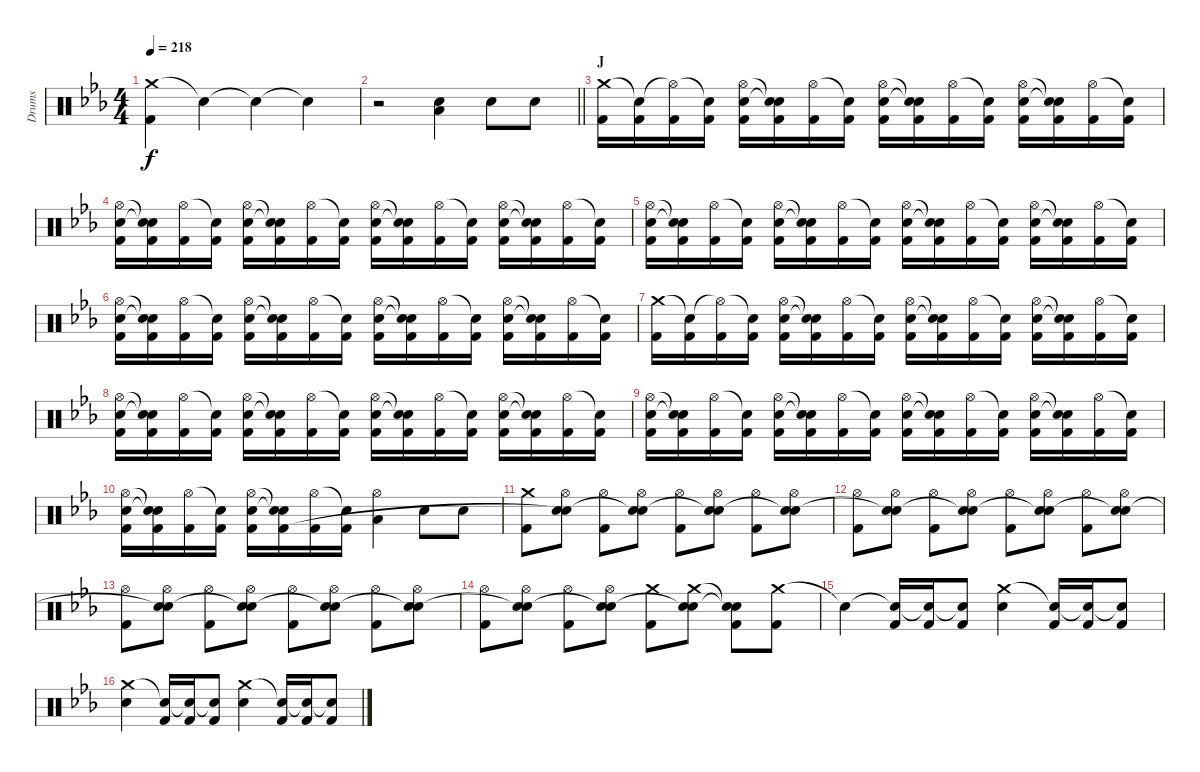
\track ("Drums" "Drums") {instrument percussion}
\staff {score}
\articulation defaults
\ts (4 4)
\tempo 218
\clef neutral
\ks eb
("Crash medium (hit)" "Kick (hit) 2").4{dy f} "Snare (hit)"{t}.4 "Snare (hit)"{t}.4 "Snare (hit)"{t}.4 |
\barLineRight lightlight
r.2 ("Electric Snare (hit)" "Low Floor Tom (hit)").4 "Electric Snare (hit)".8 "Electric Snare (hit)".8 |
\section ("" "J")
("Crash medium (hit)" "Kick (hit) 2").16 ("Snare (hit)"{t} "Kick (hit) 2").16 ("Hi-Hat (open)"{t} "Kick (hit) 2").16 ("Snare (hit)"{t} "Kick (hit) 2").16 ("Hi-Hat (open)" "Electric Snare (hit)" "Kick (hit) 2").16 ("Snare (hit)"{t} "Snare (hit)"{t} "Kick (hit) 2").16 ("Hi-Hat (open)" "Kick (hit) 2").16 ("Snare (hit)"{t} "Kick (hit) 2").16 ("Hi-Hat (open)" "Electric Snare (hit)" "Kick (hit) 2").16 ("Snare (hit)"{t} "Snare (hit)"{t} "Kick (hit) 2").16 ("Hi-Hat (open)" "Kick (hit) 2").16 ("Snare (hit)"{t} "Kick (hit) 2").16 ("Hi-Hat (open)" "Electric Snare (hit)" "Kick (hit) 2").16 ("Snare (hit)"{t} "Snare (hit)"{t} "Kick (hit) 2").16 ("Hi-Hat (open)" "Kick (hit) 2").16 ("Snare (hit)"{t} "Kick (hit) 2").16 |
("Hi-Hat (open)" "Electric Snare (hit)" "Kick (hit) 2").16 ("Snare (hit)"{t} "Snare (hit)"{t} "Kick (hit) 2").16 ("Hi-Hat (open)" "Kick (hit) 2").16 ("Snare (hit)"{t} "Kick (hit) 2").16 ("Hi-Hat (open)" "Electric Snare (hit)" "Kick (hit) 2").16 ("Snare (hit)"{t} "Snare (hit)"{t} "Kick (hit) 2").16 ("Hi-Hat (open)" "Kick (hit) 2").16 ("Snare (hit)"{t} "Kick (hit) 2").16 ("Hi-Hat (open)" "Electric Snare (hit)" "Kick (hit) 2").16 ("Snare (hit)"{t} "Snare (hit)"{t} "Kick (hit) 2").16 ("Hi-Hat (open)" "Kick (hit) 2").16 ("Snare (hit)"{t} "Kick (hit) 2").16 ("Hi-Hat (open)" "Electric Snare (hit)" "Kick (hit) 2").16 ("Snare (hit)"{t} "Snare (hit)"{t} "Kick (hit) 2").16 ("Hi-Hat (open)" "Kick (hit) 2").16 ("Snare (hit)"{t} "Kick (hit) 2").16 |
("Hi-Hat (open)" "Electric Snare (hit)" "Kick (hit) 2").16 ("Snare (hit)"{t} "Snare (hit)"{t} "Kick (hit) 2").16 ("Hi-Hat (open)" "Kick (hit) 2").16 ("Snare (hit)"{t} "Kick (hit) 2").16 ("Hi-Hat (open)" "Electric Snare (hit)" "Kick (hit) 2").16 ("Snare (hit)"{t} "Snare (hit)"{t} "Kick (hit) 2").16 ("Hi-Hat (open)" "Kick (hit) 2").16 ("Snare (hit)"{t} "Kick (hit) 2").16 ("Hi-Hat (open)" "Electric Snare (hit)" "Kick (hit) 2").16 ("Snare (hit)"{t} "Snare (hit)"{t} "Kick (hit) 2").16 ("Hi-Hat (open)" "Kick (hit) 2").16 ("Snare (hit)"{t} "Kick (hit) 2").16 ("Hi-Hat (open)" "Electric Snare (hit)" "Kick (hit) 2").16 ("Snare (hit)"{t} "Snare (hit)"{t} "Kick (hit) 2").16 ("Hi-Hat (open)" "Kick (hit) 2").16 ("Snare (hit)"{t} "Kick (hit) 2").16 |
("Hi-Hat (open)" "Electric Snare (hit)" "Kick (hit) 2").16 ("Snare (hit)"{t} "Snare (hit)"{t} "Kick (hit) 2").16 ("Hi-Hat (open)" "Kick (hit) 2").16 ("Snare (hit)"{t} "Kick (hit) 2").16 ("Hi-Hat (open)" "Electric Snare (hit)" "Kick (hit) 2").16 ("Snare (hit)"{t} "Snare (hit)"{t} "Kick (hit) 2").16 ("Hi-Hat (open)" "Kick (hit) 2").16 ("Snare (hit)"{t} "Kick (hit) 2").16 ("Hi-Hat (open)" "Electric Snare (hit)" "Kick (hit) 2").16 ("Snare (hit)"{t} "Snare (hit)"{t} "Kick (hit) 2").16 ("Hi-Hat (open)" "Kick (hit) 2").16 ("Snare (hit)"{t} "Kick (hit) 2").16 ("Hi-Hat (open)" "Electric Snare (hit)" "Kick (hit) 2").16 ("Snare (hit)"{t} "Snare (hit)"{t} "Kick (hit) 2").16 ("Hi-Hat (open)" "Kick (hit) 2").16 ("Snare (hit)"{t} "Kick (hit) 2").16 |
("Crash medium (hit)" "Kick (hit) 2").16 ("Snare (hit)"{t} "Kick (hit) 2").16 ("Hi-Hat (open)"{t} "Kick (hit) 2").16 ("Snare (hit)"{t} "Kick (hit) 2").16 ("Hi-Hat (open)" "Electric Snare (hit)" "Kick (hit) 2").16 ("Snare (hit)"{t} "Snare (hit)"{t} "Kick (hit) 2").16 ("Hi-Hat (open)" "Kick (hit) 2").16 ("Snare (hit)"{t} "Kick (hit) 2").16 ("Hi-Hat (open)" "Electric Snare (hit)" "Kick (hit) 2").16 ("Snare (hit)"{t} "Snare (hit)"{t} "Kick (hit) 2").16 ("Hi-Hat (open)" "Kick (hit) 2").16 ("Snare (hit)"{t} "Kick (hit) 2").16 ("Hi-Hat (open)" "Electric Snare (hit)" "Kick (hit) 2").16 ("Snare (hit)"{t} "Snare (hit)"{t} "Kick (hit) 2").16 ("Hi-Hat (open)" "Kick (hit) 2").16 ("Snare (hit)"{t} "Kick (hit) 2").16 |
("Hi-Hat (open)" "Electric Snare (hit)" "Kick (hit) 2").16 ("Snare (hit)"{t} "Snare (hit)"{t} "Kick (hit) 2").16 ("Hi-Hat (open)" "Kick (hit) 2").16 ("Snare (hit)"{t} "Kick (hit) 2").16 ("Hi-Hat (open)" "Electric Snare (hit)" "Kick (hit) 2").16 ("Snare (hit)"{t} "Snare (hit)"{t} "Kick (hit) 2").16 ("Hi-Hat (open)" "Kick (hit) 2").16 ("Snare (hit)"{t} "Kick (hit) 2").16 ("Hi-Hat (open)" "Electric Snare (hit)" "Kick (hit) 2").16 ("Snare (hit)"{t} "Snare (hit)"{t} "Kick (hit) 2").16 ("Hi-Hat (open)" "Kick (hit) 2").16 ("Snare (hit)"{t} "Kick (hit) 2").16 ("Hi-Hat (open)" "Electric Snare (hit)" "Kick (hit) 2").16 ("Snare (hit)"{t} "Snare (hit)"{t} "Kick (hit) 2").16 ("Hi-Hat (open)" "Kick (hit) 2").16 ("Snare (hit)"{t} "Kick (hit) 2").16 |
("Hi-Hat (open)" "Electric Snare (hit)" "Kick (hit) 2").16 ("Snare (hit)"{t} "Snare (hit)"{t} "Kick (hit) 2").16 ("Hi-Hat (open)" "Kick (hit) 2").16 ("Snare (hit)"{t} "Kick (hit) 2").16 ("Hi-Hat (open)" "Electric Snare (hit)" "Kick (hit) 2").16 ("Snare (hit)"{t} "Snare (hit)"{t} "Kick (hit) 2").16 ("Hi-Hat (open)" "Kick (hit) 2").16 ("Snare (hit)"{t} "Kick (hit) 2").16 ("Hi-Hat (open)" "Electric Snare (hit)" "Kick (hit) 2").16 ("Snare (hit)"{t} "Snare (hit)"{t} "Kick (hit) 2").16 ("Hi-Hat (open)" "Kick (hit) 2").16 ("Snare (hit)"{t} "Kick (hit) 2").16 ("Hi-Hat (open)" "Electric Snare (hit)" "Kick (hit) 2").16 ("Snare (hit)"{t} "Snare (hit)"{t} "Kick (hit) 2").16 ("Hi-Hat (open)" "Kick (hit) 2").16 ("Snare (hit)"{t} "Kick (hit) 2").16 |
("Hi-Hat (open)" "Electric Snare (hit)" "Kick (hit) 2").16 ("Snare (hit)"{t} "Snare (hit)"{t} "Kick (hit) 2").16 ("Hi-Hat (open)" "Kick (hit) 2").16 ("Snare (hit)"{t} "Kick (hit) 2").16 ("Hi-Hat (open)" "Electric Snare (hit)" "Kick (hit) 2").16 ("Snare (hit)"{t} "Snare (hit)"{t} "Kick (hit) 2").16 ("Hi-Hat (open)" "Kick (hit) 2").16 ("Snare (hit)"{t} "Kick (hit) 2").16 ("Hi-Hat (open)" "Low Floor Tom (hit)").4 "Electric Snare (hit)".8 "Electric Snare (hit)".8 |
("Crash medium (hit)" "Kick (hit) 2").8 ("Hi-Hat (open)" "Electric Snare (hit)" "Snare (hit)"{t}).8 ("Hi-Hat (open)" "Kick (hit) 2").8 ("Hi-Hat (open)" "Electric Snare (hit)" "Snare (hit)"{t}).8 ("Hi-Hat (open)" "Kick (hit) 2").8 ("Hi-Hat (open)" "Electric Snare (hit)" "Snare (hit)"{t}).8 ("Hi-Hat (open)" "Kick (hit) 2").8 ("Hi-Hat (open)" "Electric Snare (hit)" "Snare (hit)"{t}).8 |
("Hi-Hat (open)" "Kick (hit) 2").8 ("Hi-Hat (open)" "Electric Snare (hit)" "Snare (hit)"{t}).8 ("Hi-Hat (open)" "Kick (hit) 2").8 ("Hi-Hat (open)" "Electric Snare (hit)" "Snare (hit)"{t}).8 ("Hi-Hat (open)" "Kick (hit) 2").8 ("Hi-Hat (open)" "Electric Snare (hit)" "Snare (hit)"{t}).8 ("Hi-Hat (open)" "Kick (hit) 2").8 ("Hi-Hat (open)" "Electric Snare (hit)" "Snare (hit)"{t}).8 |
("Hi-Hat (open)" "Kick (hit) 2").8 ("Hi-Hat (open)" "Electric Snare (hit)" "Snare (hit)"{t}).8 ("Hi-Hat (open)" "Kick (hit) 2").8 ("Hi-Hat (open)" "Electric Snare (hit)" "Snare (hit)"{t}).8 ("Hi-Hat (open)" "Kick (hit) 2").8 ("Hi-Hat (open)" "Electric Snare (hit)" "Snare (hit)"{t}).8 ("Hi-Hat (open)" "Kick (hit) 2").8 ("Hi-Hat (open)" "Electric Snare (hit)" "Snare (hit)"{t}).8 |
("Hi-Hat (open)" "Kick (hit) 2").8 ("Hi-Hat (open)" "Electric Snare (hit)" "Snare (hit)"{t}).8 ("Hi-Hat (open)" "Kick (hit) 2").8 ("Hi-Hat (open)" "Electric Snare (hit)" "Snare (hit)"{t}).8 ("Crash medium (hit)" "Kick (hit) 2").8 ("Crash medium (hit)" "Electric Snare (hit)" "Snare (hit)"{t}).8 ("Snare (hit)"{t} "Snare (hit)"{t} "Kick (hit) 2").8 ("Crash medium (hit)" "Kick (hit) 2").8 |
"Snare (hit)"{t}.4 ("Snare (hit)"{t} "Kick (hit) 2").16 ("Snare (hit)"{t} "Kick (hit) 2").16 ("Snare (hit)"{t} "Kick (hit) 2").8 ("Crash medium (hit)" "Electric Snare (hit)").4 ("Snare (hit)"{t} "Kick (hit) 2").16 ("Snare (hit)"{t} "Kick (hit) 2").16 ("Snare (hit)"{t} "Kick (hit) 2").8 |
("Crash medium (hit)" "Electric Snare (hit)").4 ("Snare (hit)"{t} "Kick (hit) 2").16 ("Snare (hit)"{t} "Kick (hit) 2").16 ("Snare (hit)"{t} "Kick (hit) 2").8 ("Crash medium (hit)" "Electric Snare (hit)").4 ("Snare (hit)"{t} "Kick (hit) 2").16 ("Snare (hit)"{t} "Kick (hit) 2").16 ("Snare (hit)"{t} "Kick (hit) 2").8
